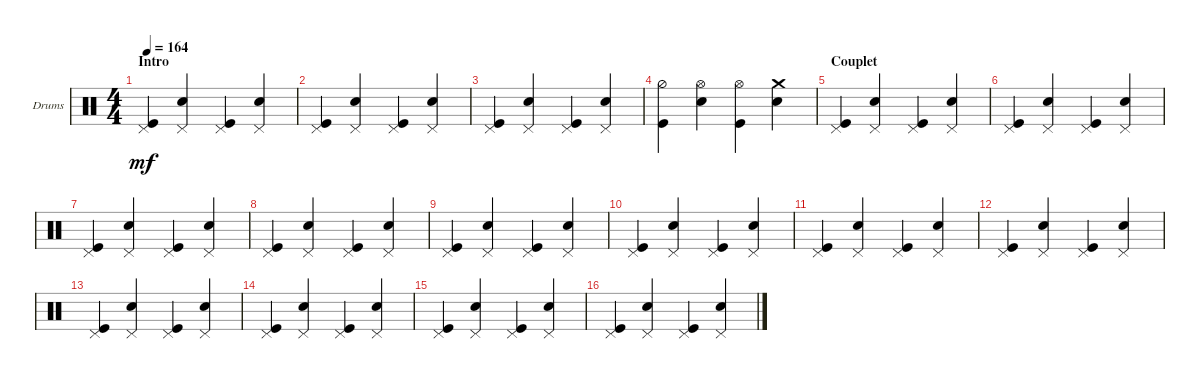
\defaultSystemsLayout 4
\bracketExtendMode groupsimilarinstruments
\firstSystemTrackNameOrientation horizontal
\otherSystemsTrackNameOrientation horizontal
\track ("Drumkit" "Drums") {instrument percussion}
\staff {score}
\articulation defaults
\ts (4 4)
\section ("" "Intro")
\tempo 164
\clef neutral
\scale
0.302222
\ks c
("Kick (hit)" "Pedal Hi-Hat (hit)").4{dy mf} ("Snare (hit) 2" "Pedal Hi-Hat (hit)").4 ("Kick (hit)" "Pedal Hi-Hat (hit)").4 ("Snare (hit) 2" "Pedal Hi-Hat (hit)").4 |
\scale
0.248889 ("Kick (hit)" "Pedal Hi-Hat (hit)").4 ("Snare (hit) 2" "Pedal Hi-Hat (hit)").4 ("Kick (hit)" "Pedal Hi-Hat (hit)").4 ("Snare (hit) 2" "Pedal Hi-Hat (hit)").4 |
\scale
0.321839 ("Kick (hit)" "Pedal Hi-Hat (hit)").4 ("Snare (hit) 2" "Pedal Hi-Hat (hit)").4 ("Kick (hit)" "Pedal Hi-Hat (hit)").4 ("Snare (hit) 2" "Pedal Hi-Hat (hit)").4 |
\scale
0.356322 ("Kick (hit)" "Hi-Hat (half)").4 ("Snare (hit) 2" "Hi-Hat (open)").4 ("Kick (hit)" "Hi-Hat (open)").4 ("Snare (hit) 2" "Crash medium (hit)").4 |
\section ("" "Couplet")
("Kick (hit)" "Pedal Hi-Hat (hit)").4 ("Snare (hit) 2" "Pedal Hi-Hat (hit)").4 ("Kick (hit)" "Pedal Hi-Hat (hit)").4 ("Snare (hit) 2" "Pedal Hi-Hat (hit)").4 |
("Kick (hit)" "Pedal Hi-Hat (hit)").4 ("Snare (hit) 2" "Pedal Hi-Hat (hit)").4 ("Kick (hit)" "Pedal Hi-Hat (hit)").4 ("Snare (hit) 2" "Pedal Hi-Hat (hit)").4 |
("Kick (hit)" "Pedal Hi-Hat (hit)").4 ("Snare (hit) 2" "Pedal Hi-Hat (hit)").4 ("Kick (hit)" "Pedal Hi-Hat (hit)").4 ("Snare (hit) 2" "Pedal Hi-Hat (hit)").4 |
("Kick (hit)" "Pedal Hi-Hat (hit)").4 ("Snare (hit) 2" "Pedal Hi-Hat (hit)").4 ("Kick (hit)" "Pedal Hi-Hat (hit)").4 ("Snare (hit) 2" "Pedal Hi-Hat (hit)").4 |
\scale
0.321839 ("Kick (hit)" "Pedal Hi-Hat (hit)").4 ("Snare (hit) 2" "Pedal Hi-Hat (hit)").4 ("Kick (hit)" "Pedal Hi-Hat (hit)").4 ("Snare (hit) 2" "Pedal Hi-Hat (hit)").4 |
\scale
0.333333 ("Kick (hit)" "Pedal Hi-Hat (hit)").4 ("Snare (hit) 2" "Pedal Hi-Hat (hit)").4 ("Kick (hit)" "Pedal Hi-Hat (hit)").4 ("Snare (hit) 2" "Pedal Hi-Hat (hit)").4 |
\scale
0.333333 ("Kick (hit)" "Pedal Hi-Hat (hit)").4 ("Snare (hit) 2" "Pedal Hi-Hat (hit)").4 ("Kick (hit)" "Pedal Hi-Hat (hit)").4 ("Snare (hit) 2" "Pedal Hi-Hat (hit)").4 |
\scale
0.333333 ("Kick (hit)" "Pedal Hi-Hat (hit)").4 ("Snare (hit) 2" "Pedal Hi-Hat (hit)").4 ("Kick (hit)" "Pedal Hi-Hat (hit)").4 ("Snare (hit) 2" "Pedal Hi-Hat (hit)").4 |
\scale
0.333333 ("Kick (hit)" "Pedal Hi-Hat (hit)").4 ("Snare (hit) 2" "Pedal Hi-Hat (hit)").4 ("Kick (hit)" "Pedal Hi-Hat (hit)").4 ("Snare (hit) 2" "Pedal Hi-Hat (hit)").4 |
\scale
0.333333 ("Kick (hit)" "Pedal Hi-Hat (hit)").4 ("Snare (hit) 2" "Pedal Hi-Hat (hit)").4 ("Kick (hit)" "Pedal Hi-Hat (hit)").4 ("Snare (hit) 2" "Pedal Hi-Hat (hit)").4 |
\scale
0.333333 ("Kick (hit)" "Pedal Hi-Hat (hit)").4 ("Snare (hit) 2" "Pedal Hi-Hat (hit)").4 ("Kick (hit)" "Pedal Hi-Hat (hit)").4 ("Snare (hit) 2" "Pedal Hi-Hat (hit)").4 |
\scale
0.333333 ("Kick (hit)" "Pedal Hi-Hat (hit)").4 ("Snare (hit) 2" "Pedal Hi-Hat (hit)").4 ("Kick (hit)" "Pedal Hi-Hat (hit)").4 ("Snare (hit) 2" "Pedal Hi-Hat (hit)").4
